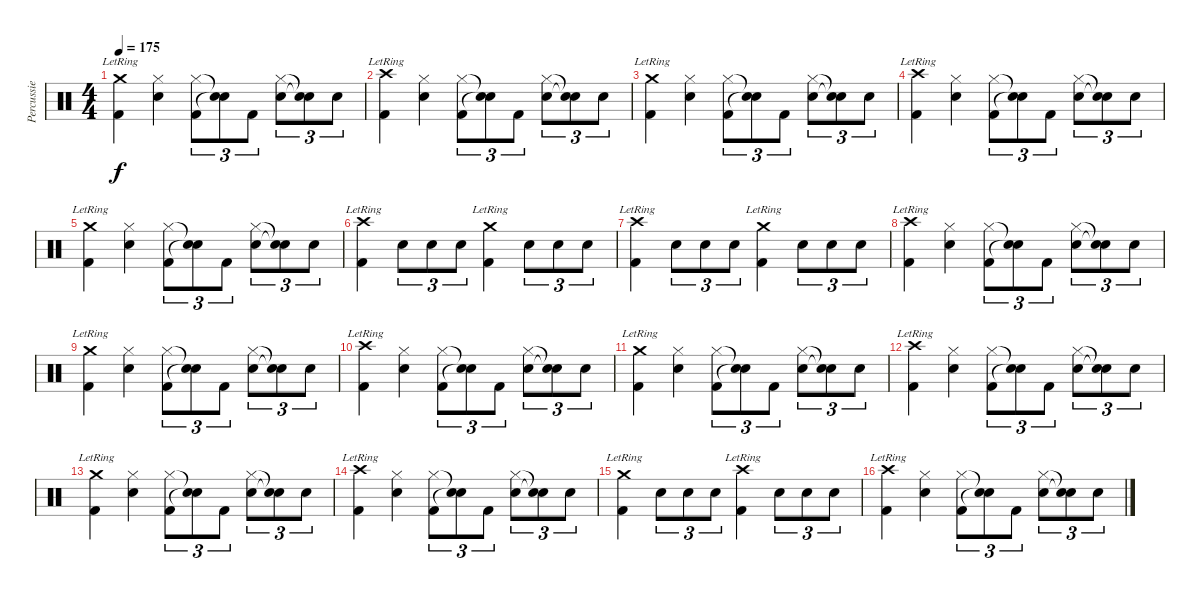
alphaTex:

\track ("Percussie" "Percussie") {instrument percussion}
\staff {score}
\articulation defaults
\ts (4 4)
\tempo 175
\clef neutral
\ks c
("Crash medium (hit)"{lr} "Kick (hit) 2").4{dy f} ("Hi-Hat (closed)" "Snare (hit) 2").4 ("Hi-Hat (closed)" "Kick (hit) 2").8{tu (3 2)} ("Snare (hit)"{t} "Snare (hit)"{t}).8{tu (3 2)} "Kick (hit) 2".8{tu (3 2)} ("Hi-Hat (closed)" "Snare (hit) 2").8{tu (3 2)} ("Snare (hit)"{t} "Snare (hit)"{t}).8{tu (3 2)} "Snare (hit) 2".8{tu (3 2)} |
("Crash high (hit)"{lr} "Kick (hit) 2").4 ("Hi-Hat (closed)" "Snare (hit) 2").4 ("Hi-Hat (closed)" "Kick (hit) 2").8{tu (3 2)} ("Snare (hit)"{t} "Snare (hit)"{t}).8{tu (3 2)} "Kick (hit) 2".8{tu (3 2)} ("Hi-Hat (closed)" "Snare (hit) 2").8{tu (3 2)} ("Snare (hit)"{t} "Snare (hit)"{t}).8{tu (3 2)} "Snare (hit) 2".8{tu (3 2)} |
("Crash medium (hit)"{lr} "Kick (hit) 2").4 ("Hi-Hat (closed)" "Snare (hit) 2").4 ("Hi-Hat (closed)" "Kick (hit) 2").8{tu (3 2)} ("Snare (hit)"{t} "Snare (hit)"{t}).8{tu (3 2)} "Kick (hit) 2".8{tu (3 2)} ("Hi-Hat (closed)" "Snare (hit) 2").8{tu (3 2)} ("Snare (hit)"{t} "Snare (hit)"{t}).8{tu (3 2)} "Snare (hit) 2".8{tu (3 2)} |
("Crash high (hit)"{lr} "Kick (hit) 2").4 ("Hi-Hat (closed)" "Snare (hit) 2").4 ("Hi-Hat (closed)" "Kick (hit) 2").8{tu (3 2)} ("Snare (hit)"{t} "Snare (hit)"{t}).8{tu (3 2)} "Kick (hit) 2".8{tu (3 2)} ("Hi-Hat (closed)" "Snare (hit) 2").8{tu (3 2)} ("Snare (hit)"{t} "Snare (hit)"{t}).8{tu (3 2)} "Snare (hit) 2".8{tu (3 2)} |
("Crash medium (hit)"{lr} "Kick (hit) 2").4 ("Hi-Hat (closed)" "Snare (hit) 2").4 ("Hi-Hat (closed)" "Kick (hit) 2").8{tu (3 2)} ("Snare (hit)"{t} "Snare (hit)"{t}).8{tu (3 2)} "Kick (hit) 2".8{tu (3 2)} ("Hi-Hat (closed)" "Snare (hit) 2").8{tu (3 2)} ("Snare (hit)"{t} "Snare (hit)"{t}).8{tu (3 2)} "Snare (hit) 2".8{tu (3 2)} |
("Crash high (hit)"{lr} "Kick (hit) 2").4 "Snare (hit) 2".8{tu (3 2)} "Snare (hit) 2".8{tu (3 2)} "Snare (hit) 2".8{tu (3 2)} ("Crash medium (hit)"{lr} "Kick (hit) 2").4 "Snare (hit) 2".8{tu (3 2)} "Snare (hit) 2".8{tu (3 2)} "Snare (hit) 2".8{tu (3 2)} |
("Crash high (hit)"{lr} "Kick (hit) 2").4 "Snare (hit) 2".8{tu (3 2)} "Snare (hit) 2".8{tu (3 2)} "Snare (hit) 2".8{tu (3 2)} ("Crash medium (hit)"{lr} "Kick (hit) 2").4 "Snare (hit) 2".8{tu (3 2)} "Snare (hit) 2".8{tu (3 2)} "Snare (hit) 2".8{tu (3 2)} |
("Crash high (hit)"{lr} "Kick (hit) 2").4 ("Hi-Hat (closed)" "Snare (hit) 2").4 ("Hi-Hat (closed)" "Kick (hit) 2").8{tu (3 2)} ("Snare (hit)"{t} "Snare (hit)"{t}).8{tu (3 2)} "Kick (hit) 2".8{tu (3 2)} ("Hi-Hat (closed)" "Snare (hit) 2").8{tu (3 2)} ("Snare (hit)"{t} "Snare (hit)"{t}).8{tu (3 2)} "Snare (hit) 2".8{tu (3 2)} |
("Crash medium (hit)"{lr} "Kick (hit) 2").4 ("Hi-Hat (closed)" "Snare (hit) 2").4 ("Hi-Hat (closed)" "Kick (hit) 2").8{tu (3 2)} ("Snare (hit)"{t} "Snare (hit)"{t}).8{tu (3 2)} "Kick (hit) 2".8{tu (3 2)} ("Hi-Hat (closed)" "Snare (hit) 2").8{tu (3 2)} ("Snare (hit)"{t} "Snare (hit)"{t}).8{tu (3 2)} "Snare (hit) 2".8{tu (3 2)} |
("Crash high (hit)"{lr} "Kick (hit) 2").4 ("Hi-Hat (closed)" "Snare (hit) 2").4 ("Hi-Hat (closed)" "Kick (hit) 2").8{tu (3 2)} ("Snare (hit)"{t} "Snare (hit)"{t}).8{tu (3 2)} "Kick (hit) 2".8{tu (3 2)} ("Hi-Hat (closed)" "Snare (hit) 2").8{tu (3 2)} ("Snare (hit)"{t} "Snare (hit)"{t}).8{tu (3 2)} "Snare (hit) 2".8{tu (3 2)} |
("Crash medium (hit)"{lr} "Kick (hit) 2").4 ("Hi-Hat (closed)" "Snare (hit) 2").4 ("Hi-Hat (closed)" "Kick (hit) 2").8{tu (3 2)} ("Snare (hit)"{t} "Snare (hit)"{t}).8{tu (3 2)} "Kick (hit) 2".8{tu (3 2)} ("Hi-Hat (closed)" "Snare (hit) 2").8{tu (3 2)} ("Snare (hit)"{t} "Snare (hit)"{t}).8{tu (3 2)} "Snare (hit) 2".8{tu (3 2)} |
("Crash high (hit)"{lr} "Kick (hit) 2").4 ("Hi-Hat (closed)" "Snare (hit) 2").4 ("Hi-Hat (closed)" "Kick (hit) 2").8{tu (3 2)} ("Snare (hit)"{t} "Snare (hit)"{t}).8{tu (3 2)} "Kick (hit) 2".8{tu (3 2)} ("Hi-Hat (closed)" "Snare (hit) 2").8{tu (3 2)} ("Snare (hit)"{t} "Snare (hit)"{t}).8{tu (3 2)} "Snare (hit) 2".8{tu (3 2)} |
("Crash medium (hit)"{lr} "Kick (hit) 2").4 ("Hi-Hat (closed)" "Snare (hit) 2").4 ("Hi-Hat (closed)" "Kick (hit) 2").8{tu (3 2)} ("Snare (hit)"{t} "Snare (hit)"{t}).8{tu (3 2)} "Kick (hit) 2".8{tu (3 2)} ("Hi-Hat (closed)" "Snare (hit) 2").8{tu (3 2)} ("Snare (hit)"{t} "Snare (hit)"{t}).8{tu (3 2)} "Snare (hit) 2".8{tu (3 2)} |
("Crash high (hit)"{lr} "Kick (hit) 2").4 ("Hi-Hat (closed)" "Snare (hit) 2").4 ("Hi-Hat (closed)" "Kick (hit) 2").8{tu (3 2)} ("Snare (hit)"{t} "Snare (hit)"{t}).8{tu (3 2)} "Kick (hit) 2".8{tu (3 2)} ("Hi-Hat (closed)" "Snare (hit) 2").8{tu (3 2)} ("Snare (hit)"{t} "Snare (hit)"{t}).8{tu (3 2)} "Snare (hit) 2".8{tu (3 2)} |
("Crash medium (hit)"{lr} "Kick (hit) 2").4 "Snare (hit) 2".8{tu (3 2)} "Snare (hit) 2".8{tu (3 2)} "Snare (hit) 2".8{tu (3 2)} ("Crash high (hit)"{lr} "Kick (hit) 2").4 "Snare (hit) 2".8{tu (3 2)} "Snare (hit) 2".8{tu (3 2)} "Snare (hit) 2".8{tu (3 2)} |
("Crash high (hit)"{lr} "Kick (hit) 2").4 ("Hi-Hat (closed)" "Snare (hit) 2").4 ("Hi-Hat (closed)" "Kick (hit) 2").8{tu (3 2)} ("Snare (hit)"{t} "Snare (hit)"{t}).8{tu (3 2)} "Kick (hit) 2".8{tu (3 2)} ("Hi-Hat (closed)" "Snare (hit) 2").8{tu (3 2)} ("Snare (hit)"{t} "Snare (hit)"{t}).8{tu (3 2)} "Snare (hit) 2".8{tu (3 2)}
